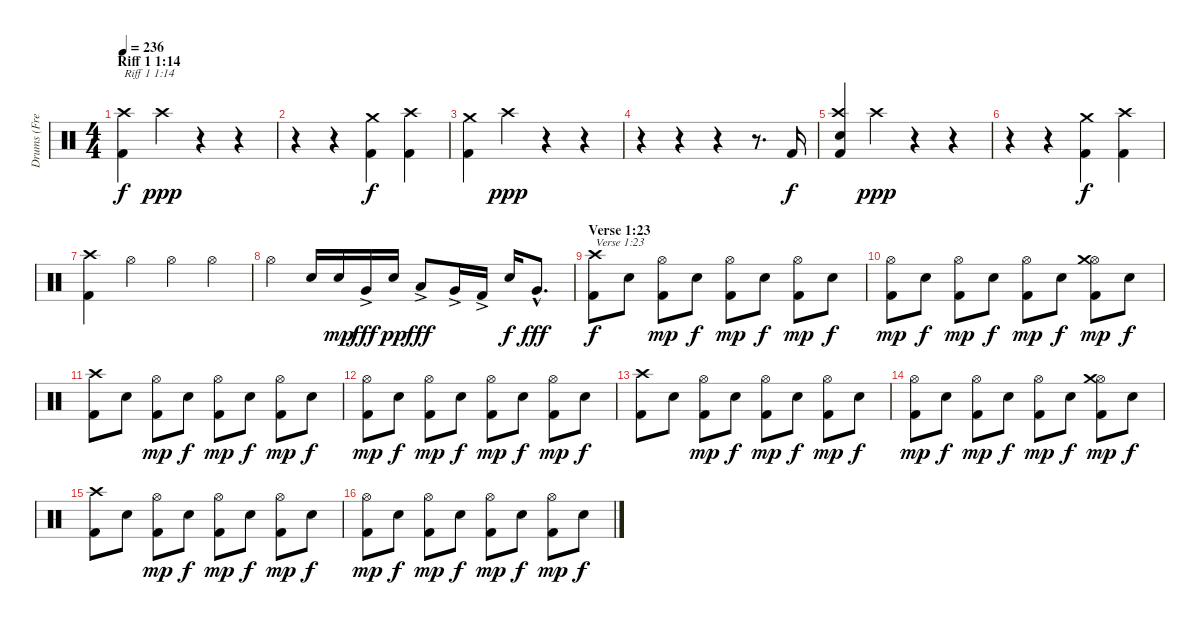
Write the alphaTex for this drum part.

\track ("Drums (Fred Estby)" "Drums (Fre") {instrument percussion}
\staff {score}
\articulation defaults
\ts (4 4)
\section ("" "Riff 1 1:14")
\tempo 236
\clef neutral
\ks c
("Kick (hit) 2" "Crash high (hit)").4{txt "Riff 1 1:14" dy f} "Crash high (hit)".4{dy ppp} r.4 r.4 |
r.4 r.4 ("Kick (hit) 2" "Crash medium (hit)").4{dy f} ("Kick (hit) 2" "Crash high (hit)").4 |
("Kick (hit) 2" "Crash medium (hit)").4 "Crash high (hit)".4{dy ppp} r.4 r.4 |
r.4 r.4 r.4 r.8{d} "Kick (hit) 2".16{dy f} |
("Kick (hit) 2" "Electric Snare (hit)" "Crash high (hit)").4 "Crash high (hit)".4{dy ppp} r.4 r.4 |
r.4 r.4 ("Kick (hit) 2" "Crash medium (hit)").4{dy f} ("Kick (hit) 2" "Crash high (hit)").4 |
("Kick (hit) 2" "Crash high (hit)").4 "Hi-Hat (open)".4 "Hi-Hat (open)".4 "Hi-Hat (open)".4 |
"Hi-Hat (open)".4 "Electric Snare (hit)".16 "Electric Snare (hit)".16{dy mp} "Very Low Tom (hit)"{ac}.16{dy fff} "Electric Snare (hit)".16{dy pp} "Low Tom (hit)"{ac}.8{dy fff} "Very Low Tom (hit)"{ac}.16 "Kick (hit) 2"{ac}.16 "Electric Snare (hit)".16{dy f} "Very Low Tom (hit)"{hac}.8{d dy fff} |
\section ("" "Verse 1:23")
("Kick (hit) 2" "Crash high (hit)").8{txt "Verse 1:23" dy f} "Electric Snare (hit)".8 ("Kick (hit) 2" "Hi-Hat (open)").8{dy mp} "Electric Snare (hit)".8{dy f} ("Kick (hit) 2" "Hi-Hat (open)").8{dy mp} "Electric Snare (hit)".8{dy f} ("Kick (hit) 2" "Hi-Hat (open)").8{dy mp} "Electric Snare (hit)".8{dy f} |
("Kick (hit) 2" "Hi-Hat (open)").8{dy mp} "Electric Snare (hit)".8{dy f} ("Kick (hit) 2" "Hi-Hat (open)").8{dy mp} "Electric Snare (hit)".8{dy f} ("Kick (hit) 2" "Hi-Hat (open)").8{dy mp} "Electric Snare (hit)".8{dy f} ("Kick (hit) 2" "Hi-Hat (open)" "Crash medium (hit)").8{dy mp} "Electric Snare (hit)".8{dy f} |
("Kick (hit) 2" "Crash high (hit)").8 "Electric Snare (hit)".8 ("Kick (hit) 2" "Hi-Hat (open)").8{dy mp} "Electric Snare (hit)".8{dy f} ("Kick (hit) 2" "Hi-Hat (open)").8{dy mp} "Electric Snare (hit)".8{dy f} ("Kick (hit) 2" "Hi-Hat (open)").8{dy mp} "Electric Snare (hit)".8{dy f} |
("Kick (hit) 2" "Hi-Hat (open)").8{dy mp} "Electric Snare (hit)".8{dy f} ("Kick (hit) 2" "Hi-Hat (open)").8{dy mp} "Electric Snare (hit)".8{dy f} ("Kick (hit) 2" "Hi-Hat (open)").8{dy mp} "Electric Snare (hit)".8{dy f} ("Kick (hit) 2" "Hi-Hat (open)").8{dy mp} "Electric Snare (hit)".8{dy f} |
("Kick (hit) 2" "Crash high (hit)").8 "Electric Snare (hit)".8 ("Kick (hit) 2" "Hi-Hat (open)").8{dy mp} "Electric Snare (hit)".8{dy f} ("Kick (hit) 2" "Hi-Hat (open)").8{dy mp} "Electric Snare (hit)".8{dy f} ("Kick (hit) 2" "Hi-Hat (open)").8{dy mp} "Electric Snare (hit)".8{dy f} |
("Kick (hit) 2" "Hi-Hat (open)").8{dy mp} "Electric Snare (hit)".8{dy f} ("Kick (hit) 2" "Hi-Hat (open)").8{dy mp} "Electric Snare (hit)".8{dy f} ("Kick (hit) 2" "Hi-Hat (open)").8{dy mp} "Electric Snare (hit)".8{dy f} ("Kick (hit) 2" "Hi-Hat (open)" "Crash medium (hit)").8{dy mp} "Electric Snare (hit)".8{dy f} |
("Kick (hit) 2" "Crash high (hit)").8 "Electric Snare (hit)".8 ("Kick (hit) 2" "Hi-Hat (open)").8{dy mp} "Electric Snare (hit)".8{dy f} ("Kick (hit) 2" "Hi-Hat (open)").8{dy mp} "Electric Snare (hit)".8{dy f} ("Kick (hit) 2" "Hi-Hat (open)").8{dy mp} "Electric Snare (hit)".8{dy f} |
("Kick (hit) 2" "Hi-Hat (open)").8{dy mp} "Electric Snare (hit)".8{dy f} ("Kick (hit) 2" "Hi-Hat (open)").8{dy mp} "Electric Snare (hit)".8{dy f} ("Kick (hit) 2" "Hi-Hat (open)").8{dy mp} "Electric Snare (hit)".8{dy f} ("Kick (hit) 2" "Hi-Hat (open)").8{dy mp} "Electric Snare (hit)".8{dy f}
